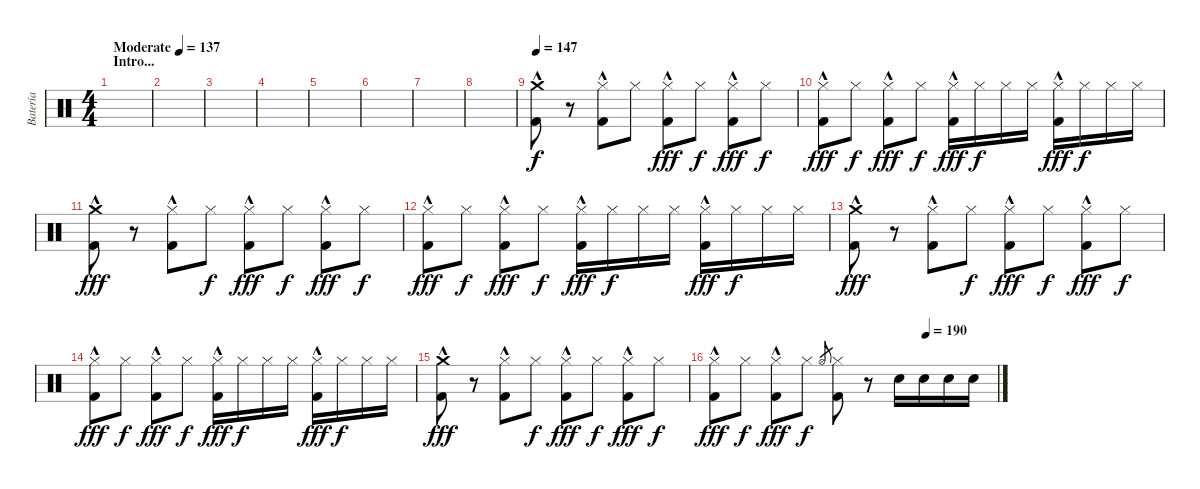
\track ("Batería" "Batería") {instrument percussion}
\staff {score}
\articulation defaults
\ts (4 4)
\section ("" "Intro...")
\tempo (137 "Moderate")
\clef neutral
\ks c
|
|
|
|
|
|
|
|
\tempo 147
("Crash medium (hit)" "Kick (hit) 2"{hac}).8 r.8 ("Hi-Hat (closed)" "Kick (hit) 2"{hac}).8 "Hi-Hat (closed)".8{dy f} ("Hi-Hat (closed)" "Kick (hit) 2"{hac}).8{dy fff} "Hi-Hat (closed)".8{dy f} ("Hi-Hat (closed)" "Kick (hit) 2"{hac}).8{dy fff} "Hi-Hat (closed)".8{dy f} |
("Hi-Hat (closed)" "Kick (hit) 2"{hac}).8{dy fff} "Hi-Hat (closed)".8{dy f} ("Hi-Hat (closed)" "Kick (hit) 2"{hac}).8{dy fff} "Hi-Hat (closed)".8{dy f} ("Hi-Hat (closed)" "Kick (hit) 2"{hac}).16{dy fff} "Hi-Hat (closed)".16{dy f} "Hi-Hat (closed)".16 "Hi-Hat (closed)".16 ("Hi-Hat (closed)" "Kick (hit) 2"{hac}).16{dy fff} "Hi-Hat (closed)".16{dy f} "Hi-Hat (closed)".16 "Hi-Hat (closed)".16 |
("Crash medium (hit)" "Kick (hit) 2"{hac}).8{dy fff} r.8 ("Hi-Hat (closed)" "Kick (hit) 2"{hac}).8 "Hi-Hat (closed)".8{dy f} ("Hi-Hat (closed)" "Kick (hit) 2"{hac}).8{dy fff} "Hi-Hat (closed)".8{dy f} ("Hi-Hat (closed)" "Kick (hit) 2"{hac}).8{dy fff} "Hi-Hat (closed)".8{dy f} |
("Hi-Hat (closed)" "Kick (hit) 2"{hac}).8{dy fff} "Hi-Hat (closed)".8{dy f} ("Hi-Hat (closed)" "Kick (hit) 2"{hac}).8{dy fff} "Hi-Hat (closed)".8{dy f} ("Hi-Hat (closed)" "Kick (hit) 2"{hac}).16{dy fff} "Hi-Hat (closed)".16{dy f} "Hi-Hat (closed)".16 "Hi-Hat (closed)".16 ("Hi-Hat (closed)" "Kick (hit) 2"{hac}).16{dy fff} "Hi-Hat (closed)".16{dy f} "Hi-Hat (closed)".16 "Hi-Hat (closed)".16 |
("Crash medium (hit)" "Kick (hit) 2"{hac}).8{dy fff} r.8 ("Hi-Hat (closed)" "Kick (hit) 2"{hac}).8 "Hi-Hat (closed)".8{dy f} ("Hi-Hat (closed)" "Kick (hit) 2"{hac}).8{dy fff} "Hi-Hat (closed)".8{dy f} ("Hi-Hat (closed)" "Kick (hit) 2"{hac}).8{dy fff} "Hi-Hat (closed)".8{dy f} |
("Hi-Hat (closed)" "Kick (hit) 2"{hac}).8{dy fff} "Hi-Hat (closed)".8{dy f} ("Hi-Hat (closed)" "Kick (hit) 2"{hac}).8{dy fff} "Hi-Hat (closed)".8{dy f} ("Hi-Hat (closed)" "Kick (hit) 2"{hac}).16{dy fff} "Hi-Hat (closed)".16{dy f} "Hi-Hat (closed)".16 "Hi-Hat (closed)".16 ("Hi-Hat (closed)" "Kick (hit) 2"{hac}).16{dy fff} "Hi-Hat (closed)".16{dy f} "Hi-Hat (closed)".16 "Hi-Hat (closed)".16 |
("Crash medium (hit)" "Kick (hit) 2"{hac}).8{dy fff} r.8 ("Hi-Hat (closed)" "Kick (hit) 2"{hac}).8 "Hi-Hat (closed)".8{dy f} ("Hi-Hat (closed)" "Kick (hit) 2"{hac}).8{dy fff} "Hi-Hat (closed)".8{dy f} ("Hi-Hat (closed)" "Kick (hit) 2"{hac}).8{dy fff} "Hi-Hat (closed)".8{dy f} |
\tempo (190 0.75)
("Hi-Hat (closed)" "Kick (hit) 2"{hac}).8{dy fff} "Hi-Hat (closed)".8{dy f} ("Hi-Hat (closed)" "Kick (hit) 2"{hac}).8{dy fff} "Hi-Hat (closed)".8{dy f} "Hi-Hat (open)".8{gr} ("Hi-Hat (closed)" "Kick (hit) 2").8 r.8 "Snare (hit) 2".16 "Snare (hit) 2".16 "Snare (hit) 2".16 "Snare (hit) 2".16
